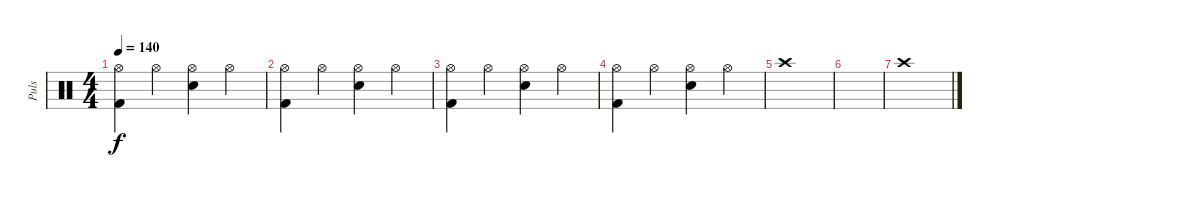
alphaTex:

\track ("Puls" "Puls") {instrument percussion}
\staff {score}
\articulation defaults
\ts (4 4)
\tempo 140
\clef neutral
\ks c
("Hi-Hat (open)" "Kick (hit) 2").4{dy f} "Hi-Hat (open)".4 ("Hi-Hat (open)" "Electric Snare (hit)").4 "Hi-Hat (open)".4 |
("Hi-Hat (open)" "Kick (hit) 2").4 "Hi-Hat (open)".4 ("Hi-Hat (open)" "Electric Snare (hit)").4 "Hi-Hat (open)".4 |
("Hi-Hat (open)" "Kick (hit) 2").4 "Hi-Hat (open)".4 ("Hi-Hat (open)" "Electric Snare (hit)").4 "Hi-Hat (open)".4 |
("Hi-Hat (open)" "Kick (hit) 2").4 "Hi-Hat (open)".4 ("Hi-Hat (open)" "Electric Snare (hit)").4 "Hi-Hat (open)".4 |
"Crash high (hit)".1 |
|
"Crash high (hit)".1
